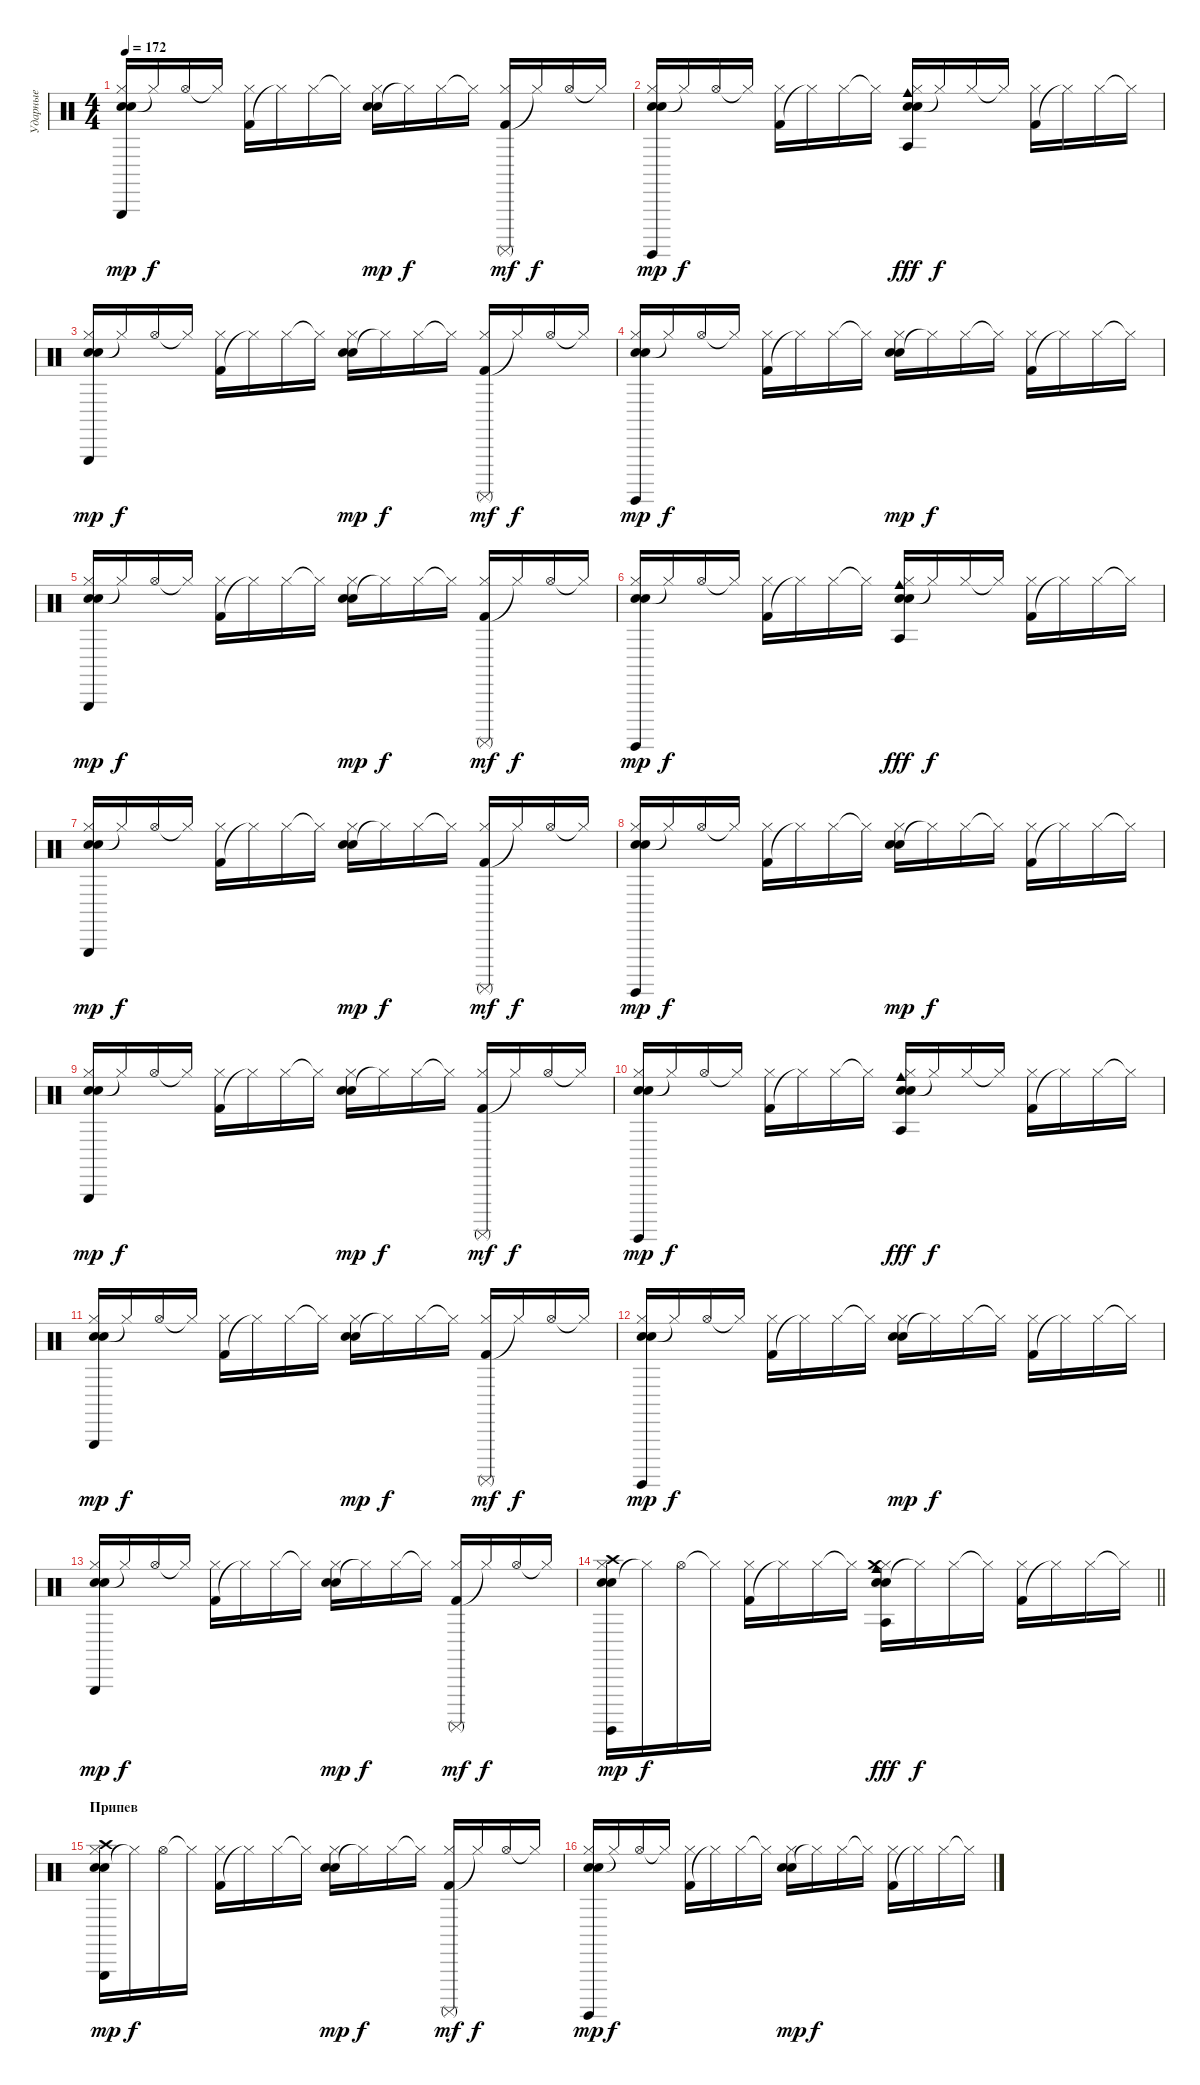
\track ("Ударные" "Ударные") {instrument percussion}
\staff {score}
\articulation defaults
\ts (4 4)
\tempo 172
\clef neutral
\ks c
("Snare (hit) 2" "Electric Snare (hit)" "Hi-Hat (closed)" "Triangle (hit)").16{dy mp} "Hi-Hat (closed)"{t}.16{dy f} "Hi-Hat (open)".16 "Hi-Hat (closed)"{t}.16 ("Kick (hit) 2" "Hi-Hat (closed)").16 "Hi-Hat (closed)"{t}.16 "Hi-Hat (closed)".16 "Hi-Hat (closed)"{t}.16 ("Snare (hit) 2" "Electric Snare (hit)" "Hi-Hat (closed)").16{dy mp} "Hi-Hat (closed)"{t}.16{dy f} "Hi-Hat (closed)".16 "Hi-Hat (closed)"{t}.16 ("Kick (hit) 2" "Hi-Hat (closed)" "Surdo (mute)").16{dy mf} "Hi-Hat (closed)"{t}.16{dy f} "Hi-Hat (open)".16 "Hi-Hat (closed)"{t}.16 |
("Snare (hit) 2" "Electric Snare (hit)" "Hi-Hat (closed)" "Surdo (hit)").16{dy mp} "Hi-Hat (closed)"{t}.16{dy f} "Hi-Hat (open)".16 "Hi-Hat (closed)"{t}.16 ("Kick (hit) 2" "Hi-Hat (closed)").16 "Hi-Hat (closed)"{t}.16 "Hi-Hat (closed)".16 "Hi-Hat (closed)"{t}.16 ("Snare (hit) 2" "Electric Snare (hit)" "Hi-Hat (closed)" "Cowbell medium (hit)" "Agogo tow (hit)").16{dy fff} "Hi-Hat (closed)"{t}.16{dy f} "Hi-Hat (closed)".16 "Hi-Hat (closed)"{t}.16 ("Kick (hit) 2" "Hi-Hat (closed)").16 "Hi-Hat (closed)"{t}.16 "Hi-Hat (closed)".16 "Hi-Hat (closed)"{t}.16 |
("Snare (hit) 2" "Electric Snare (hit)" "Hi-Hat (closed)" "Triangle (hit)").16{dy mp} "Hi-Hat (closed)"{t}.16{dy f} "Hi-Hat (open)".16 "Hi-Hat (closed)"{t}.16 ("Kick (hit) 2" "Hi-Hat (closed)").16 "Hi-Hat (closed)"{t}.16 "Hi-Hat (closed)".16 "Hi-Hat (closed)"{t}.16 ("Snare (hit) 2" "Electric Snare (hit)" "Hi-Hat (closed)").16{dy mp} "Hi-Hat (closed)"{t}.16{dy f} "Hi-Hat (closed)".16 "Hi-Hat (closed)"{t}.16 ("Kick (hit) 2" "Hi-Hat (closed)" "Surdo (mute)").16{dy mf} "Hi-Hat (closed)"{t}.16{dy f} "Hi-Hat (open)".16 "Hi-Hat (closed)"{t}.16 |
("Snare (hit) 2" "Electric Snare (hit)" "Hi-Hat (closed)" "Surdo (hit)").16{dy mp} "Hi-Hat (closed)"{t}.16{dy f} "Hi-Hat (open)".16 "Hi-Hat (closed)"{t}.16 ("Kick (hit) 2" "Hi-Hat (closed)").16 "Hi-Hat (closed)"{t}.16 "Hi-Hat (closed)".16 "Hi-Hat (closed)"{t}.16 ("Snare (hit) 2" "Electric Snare (hit)" "Hi-Hat (closed)").16{dy mp} "Hi-Hat (closed)"{t}.16{dy f} "Hi-Hat (closed)".16 "Hi-Hat (closed)"{t}.16 ("Kick (hit) 2" "Hi-Hat (closed)").16 "Hi-Hat (closed)"{t}.16 "Hi-Hat (closed)".16 "Hi-Hat (closed)"{t}.16 |
("Snare (hit) 2" "Electric Snare (hit)" "Hi-Hat (closed)" "Triangle (hit)").16{dy mp} "Hi-Hat (closed)"{t}.16{dy f} "Hi-Hat (open)".16 "Hi-Hat (closed)"{t}.16 ("Kick (hit) 2" "Hi-Hat (closed)").16 "Hi-Hat (closed)"{t}.16 "Hi-Hat (closed)".16 "Hi-Hat (closed)"{t}.16 ("Snare (hit) 2" "Electric Snare (hit)" "Hi-Hat (closed)").16{dy mp} "Hi-Hat (closed)"{t}.16{dy f} "Hi-Hat (closed)".16 "Hi-Hat (closed)"{t}.16 ("Kick (hit) 2" "Hi-Hat (closed)" "Surdo (mute)").16{dy mf} "Hi-Hat (closed)"{t}.16{dy f} "Hi-Hat (open)".16 "Hi-Hat (closed)"{t}.16 |
("Snare (hit) 2" "Electric Snare (hit)" "Hi-Hat (closed)" "Surdo (hit)").16{dy mp} "Hi-Hat (closed)"{t}.16{dy f} "Hi-Hat (open)".16 "Hi-Hat (closed)"{t}.16 ("Kick (hit) 2" "Hi-Hat (closed)").16 "Hi-Hat (closed)"{t}.16 "Hi-Hat (closed)".16 "Hi-Hat (closed)"{t}.16 ("Snare (hit) 2" "Electric Snare (hit)" "Hi-Hat (closed)" "Cowbell medium (hit)" "Agogo tow (hit)").16{dy fff} "Hi-Hat (closed)"{t}.16{dy f} "Hi-Hat (closed)".16 "Hi-Hat (closed)"{t}.16 ("Kick (hit) 2" "Hi-Hat (closed)").16 "Hi-Hat (closed)"{t}.16 "Hi-Hat (closed)".16 "Hi-Hat (closed)"{t}.16 |
("Snare (hit) 2" "Electric Snare (hit)" "Hi-Hat (closed)" "Triangle (hit)").16{dy mp} "Hi-Hat (closed)"{t}.16{dy f} "Hi-Hat (open)".16 "Hi-Hat (closed)"{t}.16 ("Kick (hit) 2" "Hi-Hat (closed)").16 "Hi-Hat (closed)"{t}.16 "Hi-Hat (closed)".16 "Hi-Hat (closed)"{t}.16 ("Snare (hit) 2" "Electric Snare (hit)" "Hi-Hat (closed)").16{dy mp} "Hi-Hat (closed)"{t}.16{dy f} "Hi-Hat (closed)".16 "Hi-Hat (closed)"{t}.16 ("Kick (hit) 2" "Hi-Hat (closed)" "Surdo (mute)").16{dy mf} "Hi-Hat (closed)"{t}.16{dy f} "Hi-Hat (open)".16 "Hi-Hat (closed)"{t}.16 |
("Snare (hit) 2" "Electric Snare (hit)" "Hi-Hat (closed)" "Surdo (hit)").16{dy mp} "Hi-Hat (closed)"{t}.16{dy f} "Hi-Hat (open)".16 "Hi-Hat (closed)"{t}.16 ("Kick (hit) 2" "Hi-Hat (closed)").16 "Hi-Hat (closed)"{t}.16 "Hi-Hat (closed)".16 "Hi-Hat (closed)"{t}.16 ("Snare (hit) 2" "Electric Snare (hit)" "Hi-Hat (closed)").16{dy mp} "Hi-Hat (closed)"{t}.16{dy f} "Hi-Hat (closed)".16 "Hi-Hat (closed)"{t}.16 ("Kick (hit) 2" "Hi-Hat (closed)").16 "Hi-Hat (closed)"{t}.16 "Hi-Hat (closed)".16 "Hi-Hat (closed)"{t}.16 |
("Snare (hit) 2" "Electric Snare (hit)" "Hi-Hat (closed)" "Triangle (hit)").16{dy mp} "Hi-Hat (closed)"{t}.16{dy f} "Hi-Hat (open)".16 "Hi-Hat (closed)"{t}.16 ("Kick (hit) 2" "Hi-Hat (closed)").16 "Hi-Hat (closed)"{t}.16 "Hi-Hat (closed)".16 "Hi-Hat (closed)"{t}.16 ("Snare (hit) 2" "Electric Snare (hit)" "Hi-Hat (closed)").16{dy mp} "Hi-Hat (closed)"{t}.16{dy f} "Hi-Hat (closed)".16 "Hi-Hat (closed)"{t}.16 ("Kick (hit) 2" "Hi-Hat (closed)" "Surdo (mute)").16{dy mf} "Hi-Hat (closed)"{t}.16{dy f} "Hi-Hat (open)".16 "Hi-Hat (closed)"{t}.16 |
("Snare (hit) 2" "Electric Snare (hit)" "Hi-Hat (closed)" "Surdo (hit)").16{dy mp} "Hi-Hat (closed)"{t}.16{dy f} "Hi-Hat (open)".16 "Hi-Hat (closed)"{t}.16 ("Kick (hit) 2" "Hi-Hat (closed)").16 "Hi-Hat (closed)"{t}.16 "Hi-Hat (closed)".16 "Hi-Hat (closed)"{t}.16 ("Snare (hit) 2" "Electric Snare (hit)" "Hi-Hat (closed)" "Cowbell medium (hit)" "Agogo tow (hit)").16{dy fff} "Hi-Hat (closed)"{t}.16{dy f} "Hi-Hat (closed)".16 "Hi-Hat (closed)"{t}.16 ("Kick (hit) 2" "Hi-Hat (closed)").16 "Hi-Hat (closed)"{t}.16 "Hi-Hat (closed)".16 "Hi-Hat (closed)"{t}.16 |
("Snare (hit) 2" "Electric Snare (hit)" "Hi-Hat (closed)" "Triangle (hit)").16{dy mp} "Hi-Hat (closed)"{t}.16{dy f} "Hi-Hat (open)".16 "Hi-Hat (closed)"{t}.16 ("Kick (hit) 2" "Hi-Hat (closed)").16 "Hi-Hat (closed)"{t}.16 "Hi-Hat (closed)".16 "Hi-Hat (closed)"{t}.16 ("Snare (hit) 2" "Electric Snare (hit)" "Hi-Hat (closed)").16{dy mp} "Hi-Hat (closed)"{t}.16{dy f} "Hi-Hat (closed)".16 "Hi-Hat (closed)"{t}.16 ("Kick (hit) 2" "Hi-Hat (closed)" "Surdo (mute)").16{dy mf} "Hi-Hat (closed)"{t}.16{dy f} "Hi-Hat (open)".16 "Hi-Hat (closed)"{t}.16 |
("Snare (hit) 2" "Electric Snare (hit)" "Hi-Hat (closed)" "Surdo (hit)").16{dy mp} "Hi-Hat (closed)"{t}.16{dy f} "Hi-Hat (open)".16 "Hi-Hat (closed)"{t}.16 ("Kick (hit) 2" "Hi-Hat (closed)").16 "Hi-Hat (closed)"{t}.16 "Hi-Hat (closed)".16 "Hi-Hat (closed)"{t}.16 ("Snare (hit) 2" "Electric Snare (hit)" "Hi-Hat (closed)").16{dy mp} "Hi-Hat (closed)"{t}.16{dy f} "Hi-Hat (closed)".16 "Hi-Hat (closed)"{t}.16 ("Kick (hit) 2" "Hi-Hat (closed)").16 "Hi-Hat (closed)"{t}.16 "Hi-Hat (closed)".16 "Hi-Hat (closed)"{t}.16 |
("Snare (hit) 2" "Electric Snare (hit)" "Hi-Hat (closed)" "Triangle (hit)").16{dy mp} "Hi-Hat (closed)"{t}.16{dy f} "Hi-Hat (open)".16 "Hi-Hat (closed)"{t}.16 ("Kick (hit) 2" "Hi-Hat (closed)").16 "Hi-Hat (closed)"{t}.16 "Hi-Hat (closed)".16 "Hi-Hat (closed)"{t}.16 ("Snare (hit) 2" "Electric Snare (hit)" "Hi-Hat (closed)").16{dy mp} "Hi-Hat (closed)"{t}.16{dy f} "Hi-Hat (closed)".16 "Hi-Hat (closed)"{t}.16 ("Kick (hit) 2" "Hi-Hat (closed)" "Surdo (mute)").16{dy mf} "Hi-Hat (closed)"{t}.16{dy f} "Hi-Hat (open)".16 "Hi-Hat (closed)"{t}.16 |
\barLineRight lightlight
("Snare (hit) 2" "Electric Snare (hit)" "Hi-Hat (closed)" "Surdo (hit)" "Crash high (hit)").16{dy mp} "Hi-Hat (closed)"{t}.16{dy f} "Hi-Hat (open)".16 "Hi-Hat (closed)"{t}.16 ("Kick (hit) 2" "Hi-Hat (closed)").16 "Hi-Hat (closed)"{t}.16 "Hi-Hat (closed)".16 "Hi-Hat (closed)"{t}.16 ("Snare (hit) 2" "Electric Snare (hit)" "Hi-Hat (closed)" "Cowbell medium (hit)" "Agogo tow (hit)" "Crash medium (hit)").16{dy fff} "Hi-Hat (closed)"{t}.16{dy f} "Hi-Hat (closed)".16 "Hi-Hat (closed)"{t}.16 ("Kick (hit) 2" "Hi-Hat (closed)").16 "Hi-Hat (closed)"{t}.16 "Hi-Hat (closed)".16 "Hi-Hat (closed)"{t}.16 |
\section ("" "Припев")
("Snare (hit) 2" "Electric Snare (hit)" "Hi-Hat (closed)" "Triangle (hit)" "Crash high (hit)").16{dy mp} "Hi-Hat (closed)"{t}.16{dy f} "Hi-Hat (open)".16 "Hi-Hat (closed)"{t}.16 ("Kick (hit) 2" "Hi-Hat (closed)").16 "Hi-Hat (closed)"{t}.16 "Hi-Hat (closed)".16 "Hi-Hat (closed)"{t}.16 ("Snare (hit) 2" "Electric Snare (hit)" "Hi-Hat (closed)").16{dy mp} "Hi-Hat (closed)"{t}.16{dy f} "Hi-Hat (closed)".16 "Hi-Hat (closed)"{t}.16 ("Kick (hit) 2" "Hi-Hat (closed)" "Surdo (mute)").16{dy mf} "Hi-Hat (closed)"{t}.16{dy f} "Hi-Hat (open)".16 "Hi-Hat (closed)"{t}.16 |
("Snare (hit) 2" "Electric Snare (hit)" "Hi-Hat (closed)" "Surdo (hit)").16{dy mp} "Hi-Hat (closed)"{t}.16{dy f} "Hi-Hat (open)".16 "Hi-Hat (closed)"{t}.16 ("Kick (hit) 2" "Hi-Hat (closed)").16 "Hi-Hat (closed)"{t}.16 "Hi-Hat (closed)".16 "Hi-Hat (closed)"{t}.16 ("Snare (hit) 2" "Electric Snare (hit)" "Hi-Hat (closed)").16{dy mp} "Hi-Hat (closed)"{t}.16{dy f} "Hi-Hat (closed)".16 "Hi-Hat (closed)"{t}.16 ("Kick (hit) 2" "Hi-Hat (closed)").16 "Hi-Hat (closed)"{t}.16 "Hi-Hat (closed)".16 "Hi-Hat (closed)"{t}.16
